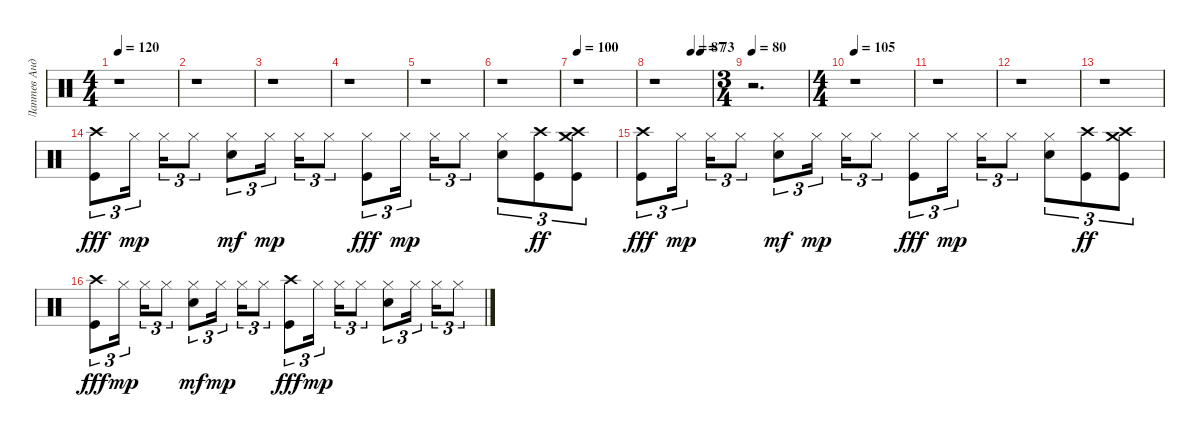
\track ("Лаптев Андрей" "Лаптев Анд") {instrument percussion}
\staff {score}
\articulation defaults
\ts (4 4)
\tempo 120
\clef neutral
\ks c
r.1{dy fff} |
r.1 |
r.1 |
r.1 |
r.1 |
r.1 |
\tempo 100
r.1 |
\tempo (87 0.6458333333333334)
\tempo (73 0.8125)
r.1 |
\ts (3 4)
\tempo 60
\tempo 80
r.2{d} |
\ts (4 4)
\tempo 105
r.1 |
r.1 |
r.1 |
r.1 |
("Crash high (hit)" "Kick (hit)").8{tu (3 2)} "Hi-Hat (closed)".16{tu (3 2) dy mp} "Hi-Hat (closed)".16{tu (3 2)} "Hi-Hat (closed)".8{tu (3 2)} ("Hi-Hat (closed)" "Electric Snare (hit)").8{tu (3 2) dy mf} "Hi-Hat (closed)".16{tu (3 2) dy mp} "Hi-Hat (closed)".16{tu (3 2)} "Hi-Hat (closed)".8{tu (3 2)} ("Hi-Hat (closed)" "Kick (hit)").8{tu (3 2) dy fff} "Hi-Hat (closed)".16{tu (3 2) dy mp} "Hi-Hat (closed)".16{tu (3 2)} "Hi-Hat (closed)".8{tu (3 2)} ("Hi-Hat (closed)" "Electric Snare (hit)").8{tu (3 2)} ("Crash high (hit)" "Kick (hit)").8{tu (3 2) dy ff} ("Crash high (hit)" "Crash medium (hit)" "Kick (hit)").8{tu (3 2)} |
("Crash high (hit)" "Kick (hit)").8{tu (3 2) dy fff} "Hi-Hat (closed)".16{tu (3 2) dy mp} "Hi-Hat (closed)".16{tu (3 2)} "Hi-Hat (closed)".8{tu (3 2)} ("Hi-Hat (closed)" "Electric Snare (hit)").8{tu (3 2) dy mf} "Hi-Hat (closed)".16{tu (3 2) dy mp} "Hi-Hat (closed)".16{tu (3 2)} "Hi-Hat (closed)".8{tu (3 2)} ("Hi-Hat (closed)" "Kick (hit)").8{tu (3 2) dy fff} "Hi-Hat (closed)".16{tu (3 2) dy mp} "Hi-Hat (closed)".16{tu (3 2)} "Hi-Hat (closed)".8{tu (3 2)} ("Hi-Hat (closed)" "Electric Snare (hit)").8{tu (3 2)} ("Crash high (hit)" "Kick (hit)").8{tu (3 2) dy ff} ("Crash high (hit)" "Crash medium (hit)" "Kick (hit)").8{tu (3 2)} |
("Crash high (hit)" "Kick (hit)").8{tu (3 2) dy fff} "Hi-Hat (closed)".16{tu (3 2) dy mp} "Hi-Hat (closed)".16{tu (3 2)} "Hi-Hat (closed)".8{tu (3 2)} ("Hi-Hat (closed)" "Electric Snare (hit)").8{tu (3 2) dy mf} "Hi-Hat (closed)".16{tu (3 2) dy mp} "Hi-Hat (closed)".16{tu (3 2)} "Hi-Hat (closed)".8{tu (3 2)} ("Crash high (hit)" "Kick (hit)").8{tu (3 2) dy fff} "Hi-Hat (closed)".16{tu (3 2) dy mp} "Hi-Hat (closed)".16{tu (3 2)} "Hi-Hat (closed)".8{tu (3 2)} ("Hi-Hat (closed)" "Electric Snare (hit)").8{tu (3 2)} "Hi-Hat (closed)".16{tu (3 2)} "Hi-Hat (closed)".16{tu (3 2)} "Hi-Hat (closed)".8{tu (3 2)}
